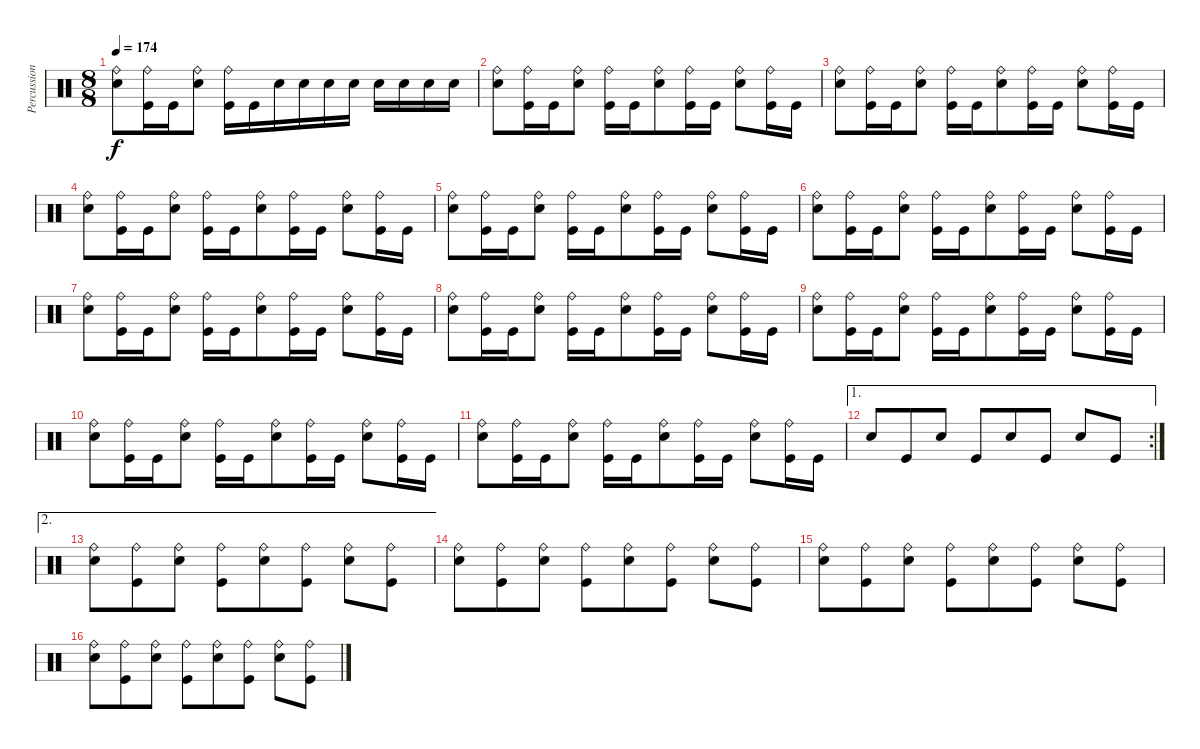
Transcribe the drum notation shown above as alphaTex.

\track ("Percussions" "Percussion") {instrument percussion}
\staff {score}
\articulation defaults
\ts (8 8)
\tempo 174
\clef neutral
\ks c
("Electric Snare (hit)" "Ride (bell)").8{dy f} ("Kick (hit)" "Ride (bell)").16 "Kick (hit)".16 ("Electric Snare (hit)" "Ride (bell)").8 ("Kick (hit)" "Ride (bell)").16 "Kick (hit)".16 "Electric Snare (hit)".16 "Electric Snare (hit)".16 "Electric Snare (hit)".16 "Electric Snare (hit)".16 "Electric Snare (hit)".16 "Electric Snare (hit)".16 "Electric Snare (hit)".16 "Electric Snare (hit)".16 |
("Electric Snare (hit)" "Ride (bell)").8 ("Kick (hit)" "Ride (bell)").16 "Kick (hit)".16 ("Electric Snare (hit)" "Ride (bell)").8 ("Kick (hit)" "Ride (bell)").16 "Kick (hit)".16 ("Electric Snare (hit)" "Ride (bell)").8 ("Kick (hit)" "Ride (bell)").16 "Kick (hit)".16 ("Electric Snare (hit)" "Ride (bell)").8 ("Kick (hit)" "Ride (bell)").16 "Kick (hit)".16 |
("Electric Snare (hit)" "Ride (bell)").8 ("Kick (hit)" "Ride (bell)").16 "Kick (hit)".16 ("Electric Snare (hit)" "Ride (bell)").8 ("Kick (hit)" "Ride (bell)").16 "Kick (hit)".16 ("Electric Snare (hit)" "Ride (bell)").8 ("Kick (hit)" "Ride (bell)").16 "Kick (hit)".16 ("Electric Snare (hit)" "Ride (bell)").8 ("Kick (hit)" "Ride (bell)").16 "Kick (hit)".16 |
("Electric Snare (hit)" "Ride (bell)").8 ("Kick (hit)" "Ride (bell)").16 "Kick (hit)".16 ("Electric Snare (hit)" "Ride (bell)").8 ("Kick (hit)" "Ride (bell)").16 "Kick (hit)".16 ("Electric Snare (hit)" "Ride (bell)").8 ("Kick (hit)" "Ride (bell)").16 "Kick (hit)".16 ("Electric Snare (hit)" "Ride (bell)").8 ("Kick (hit)" "Ride (bell)").16 "Kick (hit)".16 |
("Electric Snare (hit)" "Ride (bell)").8 ("Kick (hit)" "Ride (bell)").16 "Kick (hit)".16 ("Electric Snare (hit)" "Ride (bell)").8 ("Kick (hit)" "Ride (bell)").16 "Kick (hit)".16 ("Electric Snare (hit)" "Ride (bell)").8 ("Kick (hit)" "Ride (bell)").16 "Kick (hit)".16 ("Electric Snare (hit)" "Ride (bell)").8 ("Kick (hit)" "Ride (bell)").16 "Kick (hit)".16 |
("Electric Snare (hit)" "Ride (bell)").8 ("Kick (hit)" "Ride (bell)").16 "Kick (hit)".16 ("Electric Snare (hit)" "Ride (bell)").8 ("Kick (hit)" "Ride (bell)").16 "Kick (hit)".16 ("Electric Snare (hit)" "Ride (bell)").8 ("Kick (hit)" "Ride (bell)").16 "Kick (hit)".16 ("Electric Snare (hit)" "Ride (bell)").8 ("Kick (hit)" "Ride (bell)").16 "Kick (hit)".16 |
("Electric Snare (hit)" "Ride (bell)").8 ("Kick (hit)" "Ride (bell)").16 "Kick (hit)".16 ("Electric Snare (hit)" "Ride (bell)").8 ("Kick (hit)" "Ride (bell)").16 "Kick (hit)".16 ("Electric Snare (hit)" "Ride (bell)").8 ("Kick (hit)" "Ride (bell)").16 "Kick (hit)".16 ("Electric Snare (hit)" "Ride (bell)").8 ("Kick (hit)" "Ride (bell)").16 "Kick (hit)".16 |
("Electric Snare (hit)" "Ride (bell)").8 ("Kick (hit)" "Ride (bell)").16 "Kick (hit)".16 ("Electric Snare (hit)" "Ride (bell)").8 ("Kick (hit)" "Ride (bell)").16 "Kick (hit)".16 ("Electric Snare (hit)" "Ride (bell)").8 ("Kick (hit)" "Ride (bell)").16 "Kick (hit)".16 ("Electric Snare (hit)" "Ride (bell)").8 ("Kick (hit)" "Ride (bell)").16 "Kick (hit)".16 |
("Electric Snare (hit)" "Ride (bell)").8 ("Kick (hit)" "Ride (bell)").16 "Kick (hit)".16 ("Electric Snare (hit)" "Ride (bell)").8 ("Kick (hit)" "Ride (bell)").16 "Kick (hit)".16 ("Electric Snare (hit)" "Ride (bell)").8 ("Kick (hit)" "Ride (bell)").16 "Kick (hit)".16 ("Electric Snare (hit)" "Ride (bell)").8 ("Kick (hit)" "Ride (bell)").16 "Kick (hit)".16 |
("Electric Snare (hit)" "Ride (bell)").8 ("Kick (hit)" "Ride (bell)").16 "Kick (hit)".16 ("Electric Snare (hit)" "Ride (bell)").8 ("Kick (hit)" "Ride (bell)").16 "Kick (hit)".16 ("Electric Snare (hit)" "Ride (bell)").8 ("Kick (hit)" "Ride (bell)").16 "Kick (hit)".16 ("Electric Snare (hit)" "Ride (bell)").8 ("Kick (hit)" "Ride (bell)").16 "Kick (hit)".16 |
("Electric Snare (hit)" "Ride (bell)").8 ("Kick (hit)" "Ride (bell)").16 "Kick (hit)".16 ("Electric Snare (hit)" "Ride (bell)").8 ("Kick (hit)" "Ride (bell)").16 "Kick (hit)".16 ("Electric Snare (hit)" "Ride (bell)").8 ("Kick (hit)" "Ride (bell)").16 "Kick (hit)".16 ("Electric Snare (hit)" "Ride (bell)").8 ("Kick (hit)" "Ride (bell)").16 "Kick (hit)".16 |
\ae 1
\rc 2 "Electric Snare (hit)".8 "Kick (hit)".8 "Electric Snare (hit)".8 "Kick (hit)".8 "Electric Snare (hit)".8 "Kick (hit)".8 "Electric Snare (hit)".8 "Kick (hit)".8
|
\ae 2
("Electric Snare (hit)" "Ride (bell)").8 ("Kick (hit)" "Ride (bell)").8 ("Electric Snare (hit)" "Ride (bell)").8 ("Kick (hit)" "Ride (bell)").8 ("Electric Snare (hit)" "Ride (bell)").8 ("Kick (hit)" "Ride (bell)").8 ("Electric Snare (hit)" "Ride (bell)").8 ("Kick (hit)" "Ride (bell)").8 |
("Electric Snare (hit)" "Ride (bell)").8 ("Kick (hit)" "Ride (bell)").8 ("Electric Snare (hit)" "Ride (bell)").8 ("Kick (hit)" "Ride (bell)").8 ("Electric Snare (hit)" "Ride (bell)").8 ("Kick (hit)" "Ride (bell)").8 ("Electric Snare (hit)" "Ride (bell)").8 ("Kick (hit)" "Ride (bell)").8 |
("Electric Snare (hit)" "Ride (bell)").8 ("Kick (hit)" "Ride (bell)").8 ("Electric Snare (hit)" "Ride (bell)").8 ("Kick (hit)" "Ride (bell)").8 ("Electric Snare (hit)" "Ride (bell)").8 ("Kick (hit)" "Ride (bell)").8 ("Electric Snare (hit)" "Ride (bell)").8 ("Kick (hit)" "Ride (bell)").8 |
("Electric Snare (hit)" "Ride (bell)").8 ("Kick (hit)" "Ride (bell)").8 ("Electric Snare (hit)" "Ride (bell)").8 ("Kick (hit)" "Ride (bell)").8 ("Electric Snare (hit)" "Ride (bell)").8 ("Kick (hit)" "Ride (bell)").8 ("Electric Snare (hit)" "Ride (bell)").8 ("Kick (hit)" "Ride (bell)").8
